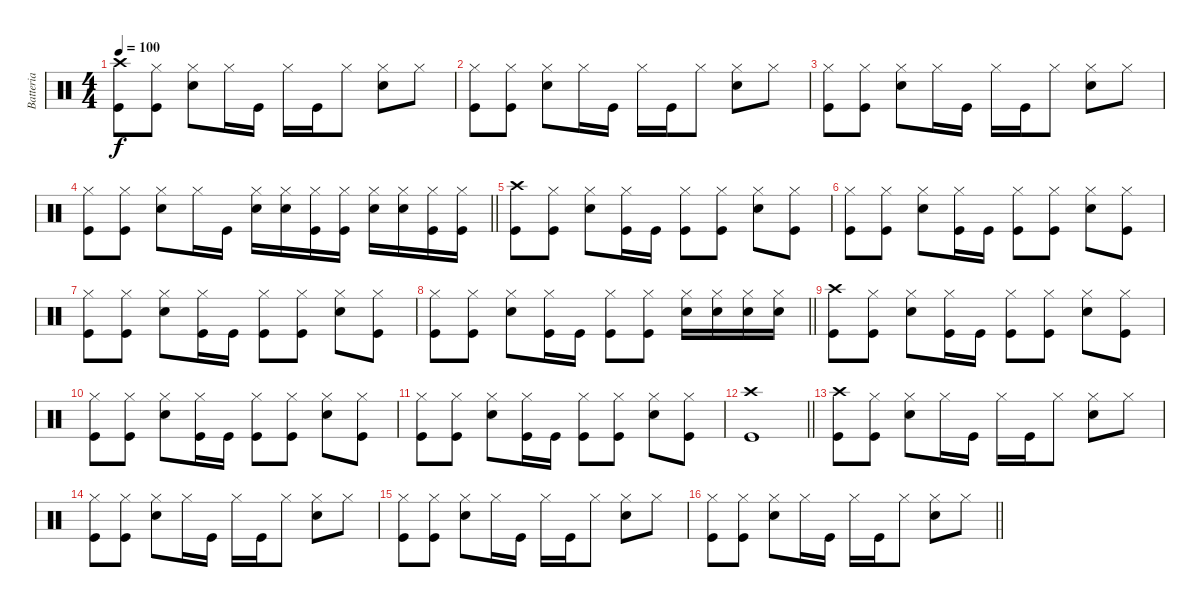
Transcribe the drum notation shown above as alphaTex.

\track ("Batteria" "Batteria") {instrument percussion}
\staff {score}
\articulation defaults
\ts (4 4)
\tempo 100
\clef neutral
\ks c
("Kick (hit)" "Crash high (hit)").8{dy f} ("Kick (hit)" "Hi-Hat (closed)").8 ("Snare (hit) 2" "Hi-Hat (closed)").8 "Hi-Hat (closed)".16 "Kick (hit)".16 "Hi-Hat (closed)".16 "Kick (hit)".16 "Hi-Hat (closed)".8 ("Snare (hit) 2" "Hi-Hat (closed)").8 "Hi-Hat (closed)".8 |
("Kick (hit)" "Hi-Hat (closed)").8 ("Kick (hit)" "Hi-Hat (closed)").8 ("Snare (hit) 2" "Hi-Hat (closed)").8 "Hi-Hat (closed)".16 "Kick (hit)".16 "Hi-Hat (closed)".16 "Kick (hit)".16 "Hi-Hat (closed)".8 ("Snare (hit) 2" "Hi-Hat (closed)").8 "Hi-Hat (closed)".8 |
("Kick (hit)" "Hi-Hat (closed)").8 ("Kick (hit)" "Hi-Hat (closed)").8 ("Snare (hit) 2" "Hi-Hat (closed)").8 "Hi-Hat (closed)".16 "Kick (hit)".16 "Hi-Hat (closed)".16 "Kick (hit)".16 "Hi-Hat (closed)".8 ("Snare (hit) 2" "Hi-Hat (closed)").8 "Hi-Hat (closed)".8 |
\barLineRight lightlight
("Kick (hit)" "Hi-Hat (closed)").8 ("Kick (hit)" "Hi-Hat (closed)").8 ("Snare (hit) 2" "Hi-Hat (closed)").8 "Hi-Hat (closed)".16 "Kick (hit)".16 ("Snare (hit) 2" "Hi-Hat (closed)").16 ("Snare (hit) 2" "Hi-Hat (closed)").16 ("Kick (hit)" "Hi-Hat (closed)").16 ("Kick (hit)" "Hi-Hat (closed)").16 ("Snare (hit) 2" "Hi-Hat (closed)").16 ("Snare (hit) 2" "Hi-Hat (closed)").16 ("Kick (hit)" "Hi-Hat (closed)").16 ("Kick (hit)" "Hi-Hat (closed)").16 |
("Crash high (hit)" "Kick (hit)").8 ("Hi-Hat (closed)" "Kick (hit)").8 ("Snare (hit) 2" "Hi-Hat (closed)").8 ("Hi-Hat (closed)" "Kick (hit)").16 "Kick (hit)".16 ("Kick (hit)" "Hi-Hat (closed)").8 ("Kick (hit)" "Hi-Hat (closed)").8 ("Snare (hit) 2" "Hi-Hat (closed)").8 ("Kick (hit)" "Hi-Hat (closed)").8 |
("Hi-Hat (closed)" "Kick (hit)").8 ("Hi-Hat (closed)" "Kick (hit)").8 ("Snare (hit) 2" "Hi-Hat (closed)").8 ("Hi-Hat (closed)" "Kick (hit)").16 "Kick (hit)".16 ("Kick (hit)" "Hi-Hat (closed)").8 ("Kick (hit)" "Hi-Hat (closed)").8 ("Snare (hit) 2" "Hi-Hat (closed)").8 ("Kick (hit)" "Hi-Hat (closed)").8 |
("Hi-Hat (closed)" "Kick (hit)").8 ("Hi-Hat (closed)" "Kick (hit)").8 ("Snare (hit) 2" "Hi-Hat (closed)").8 ("Hi-Hat (closed)" "Kick (hit)").16 "Kick (hit)".16 ("Kick (hit)" "Hi-Hat (closed)").8 ("Kick (hit)" "Hi-Hat (closed)").8 ("Snare (hit) 2" "Hi-Hat (closed)").8 ("Kick (hit)" "Hi-Hat (closed)").8 |
\barLineRight lightlight
("Hi-Hat (closed)" "Kick (hit)").8 ("Hi-Hat (closed)" "Kick (hit)").8 ("Snare (hit) 2" "Hi-Hat (closed)").8 ("Hi-Hat (closed)" "Kick (hit)").16 "Kick (hit)".16 ("Kick (hit)" "Hi-Hat (closed)").8 ("Kick (hit)" "Hi-Hat (closed)").8 ("Snare (hit) 2" "Hi-Hat (closed)").16 ("Snare (hit) 2" "Hi-Hat (closed)").16 ("Snare (hit) 2" "Hi-Hat (closed)").16 ("Snare (hit) 2" "Hi-Hat (closed)").16 |
("Crash high (hit)" "Kick (hit)").8 ("Hi-Hat (closed)" "Kick (hit)").8 ("Snare (hit) 2" "Hi-Hat (closed)").8 ("Hi-Hat (closed)" "Kick (hit)").16 "Kick (hit)".16 ("Kick (hit)" "Hi-Hat (closed)").8 ("Kick (hit)" "Hi-Hat (closed)").8 ("Snare (hit) 2" "Hi-Hat (closed)").8 ("Kick (hit)" "Hi-Hat (closed)").8 |
("Hi-Hat (closed)" "Kick (hit)").8 ("Hi-Hat (closed)" "Kick (hit)").8 ("Snare (hit) 2" "Hi-Hat (closed)").8 ("Hi-Hat (closed)" "Kick (hit)").16 "Kick (hit)".16 ("Kick (hit)" "Hi-Hat (closed)").8 ("Kick (hit)" "Hi-Hat (closed)").8 ("Snare (hit) 2" "Hi-Hat (closed)").8 ("Kick (hit)" "Hi-Hat (closed)").8 |
("Hi-Hat (closed)" "Kick (hit)").8 ("Hi-Hat (closed)" "Kick (hit)").8 ("Snare (hit) 2" "Hi-Hat (closed)").8 ("Hi-Hat (closed)" "Kick (hit)").16 "Kick (hit)".16 ("Kick (hit)" "Hi-Hat (closed)").8 ("Kick (hit)" "Hi-Hat (closed)").8 ("Snare (hit) 2" "Hi-Hat (closed)").8 ("Kick (hit)" "Hi-Hat (closed)").8 |
\barLineRight lightlight
("Crash high (hit)" "Kick (hit)").1 |
("Kick (hit)" "Crash high (hit)").8 ("Kick (hit)" "Hi-Hat (closed)").8 ("Snare (hit) 2" "Hi-Hat (closed)").8 "Hi-Hat (closed)".16 "Kick (hit)".16 "Hi-Hat (closed)".16 "Kick (hit)".16 "Hi-Hat (closed)".8 ("Snare (hit) 2" "Hi-Hat (closed)").8 "Hi-Hat (closed)".8 |
("Kick (hit)" "Hi-Hat (closed)").8 ("Kick (hit)" "Hi-Hat (closed)").8 ("Snare (hit) 2" "Hi-Hat (closed)").8 "Hi-Hat (closed)".16 "Kick (hit)".16 "Hi-Hat (closed)".16 "Kick (hit)".16 "Hi-Hat (closed)".8 ("Snare (hit) 2" "Hi-Hat (closed)").8 "Hi-Hat (closed)".8 |
("Kick (hit)" "Hi-Hat (closed)").8 ("Kick (hit)" "Hi-Hat (closed)").8 ("Snare (hit) 2" "Hi-Hat (closed)").8 "Hi-Hat (closed)".16 "Kick (hit)".16 "Hi-Hat (closed)".16 "Kick (hit)".16 "Hi-Hat (closed)".8 ("Snare (hit) 2" "Hi-Hat (closed)").8 "Hi-Hat (closed)".8 |
\barLineRight lightlight
("Kick (hit)" "Hi-Hat (closed)").8 ("Kick (hit)" "Hi-Hat (closed)").8 ("Snare (hit) 2" "Hi-Hat (closed)").8 "Hi-Hat (closed)".16 "Kick (hit)".16 "Hi-Hat (closed)".16 "Kick (hit)".16 "Hi-Hat (closed)".8 ("Snare (hit) 2" "Hi-Hat (closed)").8 "Hi-Hat (closed)".8
